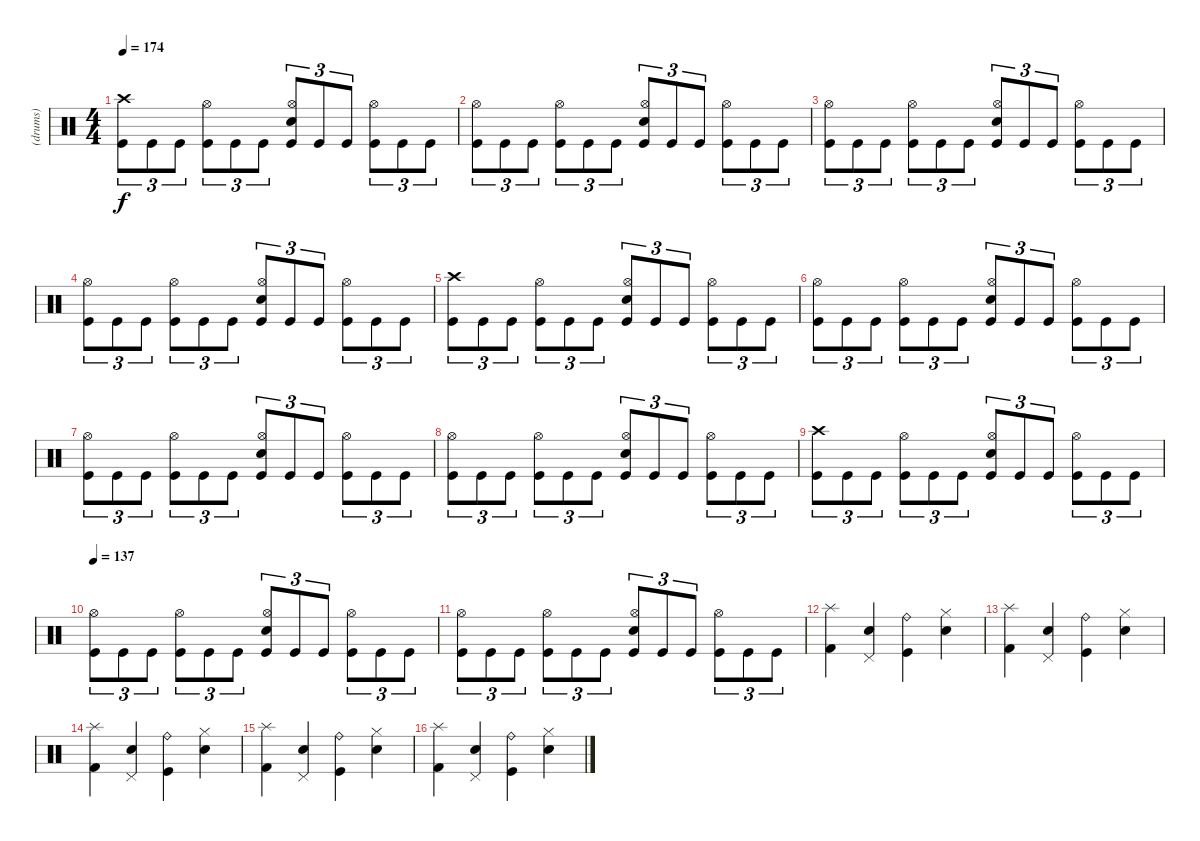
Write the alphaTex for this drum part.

\track ("(drums)" "(drums)") {instrument percussion}
\staff {score}
\articulation defaults
\ts (4 4)
\tempo 174
\clef neutral
\ks c
("Kick (hit)" "Crash high (hit)").8{tu (3 2) dy f} "Kick (hit)".8{tu (3 2)} "Kick (hit)".8{tu (3 2)} ("Kick (hit)" "Hi-Hat (open)").8{tu (3 2)} "Kick (hit)".8{tu (3 2)} "Kick (hit)".8{tu (3 2)} ("Kick (hit)" "Snare (hit) 2" "Hi-Hat (open)").8{tu (3 2)} "Kick (hit)".8{tu (3 2)} "Kick (hit)".8{tu (3 2)} ("Kick (hit)" "Hi-Hat (open)").8{tu (3 2)} "Kick (hit)".8{tu (3 2)} "Kick (hit)".8{tu (3 2)} |
("Kick (hit)" "Hi-Hat (open)").8{tu (3 2)} "Kick (hit)".8{tu (3 2)} "Kick (hit)".8{tu (3 2)} ("Kick (hit)" "Hi-Hat (open)").8{tu (3 2)} "Kick (hit)".8{tu (3 2)} "Kick (hit)".8{tu (3 2)} ("Kick (hit)" "Snare (hit) 2" "Hi-Hat (open)").8{tu (3 2)} "Kick (hit)".8{tu (3 2)} "Kick (hit)".8{tu (3 2)} ("Kick (hit)" "Hi-Hat (open)").8{tu (3 2)} "Kick (hit)".8{tu (3 2)} "Kick (hit)".8{tu (3 2)} |
("Kick (hit)" "Hi-Hat (open)").8{tu (3 2)} "Kick (hit)".8{tu (3 2)} "Kick (hit)".8{tu (3 2)} ("Kick (hit)" "Hi-Hat (open)").8{tu (3 2)} "Kick (hit)".8{tu (3 2)} "Kick (hit)".8{tu (3 2)} ("Kick (hit)" "Snare (hit) 2" "Hi-Hat (open)").8{tu (3 2)} "Kick (hit)".8{tu (3 2)} "Kick (hit)".8{tu (3 2)} ("Kick (hit)" "Hi-Hat (open)").8{tu (3 2)} "Kick (hit)".8{tu (3 2)} "Kick (hit)".8{tu (3 2)} |
("Kick (hit)" "Hi-Hat (open)").8{tu (3 2)} "Kick (hit)".8{tu (3 2)} "Kick (hit)".8{tu (3 2)} ("Kick (hit)" "Hi-Hat (open)").8{tu (3 2)} "Kick (hit)".8{tu (3 2)} "Kick (hit)".8{tu (3 2)} ("Kick (hit)" "Snare (hit) 2" "Hi-Hat (open)").8{tu (3 2)} "Kick (hit)".8{tu (3 2)} "Kick (hit)".8{tu (3 2)} ("Kick (hit)" "Hi-Hat (open)").8{tu (3 2)} "Kick (hit)".8{tu (3 2)} "Kick (hit)".8{tu (3 2)} |
("Kick (hit)" "Crash high (hit)").8{tu (3 2)} "Kick (hit)".8{tu (3 2)} "Kick (hit)".8{tu (3 2)} ("Kick (hit)" "Hi-Hat (open)").8{tu (3 2)} "Kick (hit)".8{tu (3 2)} "Kick (hit)".8{tu (3 2)} ("Kick (hit)" "Snare (hit) 2" "Hi-Hat (open)").8{tu (3 2)} "Kick (hit)".8{tu (3 2)} "Kick (hit)".8{tu (3 2)} ("Kick (hit)" "Hi-Hat (open)").8{tu (3 2)} "Kick (hit)".8{tu (3 2)} "Kick (hit)".8{tu (3 2)} |
("Kick (hit)" "Hi-Hat (open)").8{tu (3 2)} "Kick (hit)".8{tu (3 2)} "Kick (hit)".8{tu (3 2)} ("Kick (hit)" "Hi-Hat (open)").8{tu (3 2)} "Kick (hit)".8{tu (3 2)} "Kick (hit)".8{tu (3 2)} ("Kick (hit)" "Snare (hit) 2" "Hi-Hat (open)").8{tu (3 2)} "Kick (hit)".8{tu (3 2)} "Kick (hit)".8{tu (3 2)} ("Kick (hit)" "Hi-Hat (open)").8{tu (3 2)} "Kick (hit)".8{tu (3 2)} "Kick (hit)".8{tu (3 2)} |
("Kick (hit)" "Hi-Hat (open)").8{tu (3 2)} "Kick (hit)".8{tu (3 2)} "Kick (hit)".8{tu (3 2)} ("Kick (hit)" "Hi-Hat (open)").8{tu (3 2)} "Kick (hit)".8{tu (3 2)} "Kick (hit)".8{tu (3 2)} ("Kick (hit)" "Snare (hit) 2" "Hi-Hat (open)").8{tu (3 2)} "Kick (hit)".8{tu (3 2)} "Kick (hit)".8{tu (3 2)} ("Kick (hit)" "Hi-Hat (open)").8{tu (3 2)} "Kick (hit)".8{tu (3 2)} "Kick (hit)".8{tu (3 2)} |
("Kick (hit)" "Hi-Hat (open)").8{tu (3 2)} "Kick (hit)".8{tu (3 2)} "Kick (hit)".8{tu (3 2)} ("Kick (hit)" "Hi-Hat (open)").8{tu (3 2)} "Kick (hit)".8{tu (3 2)} "Kick (hit)".8{tu (3 2)} ("Kick (hit)" "Snare (hit) 2" "Hi-Hat (open)").8{tu (3 2)} "Kick (hit)".8{tu (3 2)} "Kick (hit)".8{tu (3 2)} ("Kick (hit)" "Hi-Hat (open)").8{tu (3 2)} "Kick (hit)".8{tu (3 2)} "Kick (hit)".8{tu (3 2)} |
("Kick (hit)" "Crash high (hit)").8{tu (3 2)} "Kick (hit)".8{tu (3 2)} "Kick (hit)".8{tu (3 2)} ("Kick (hit)" "Hi-Hat (open)").8{tu (3 2)} "Kick (hit)".8{tu (3 2)} "Kick (hit)".8{tu (3 2)} ("Kick (hit)" "Snare (hit) 2" "Hi-Hat (open)").8{tu (3 2)} "Kick (hit)".8{tu (3 2)} "Kick (hit)".8{tu (3 2)} ("Kick (hit)" "Hi-Hat (open)").8{tu (3 2)} "Kick (hit)".8{tu (3 2)} "Kick (hit)".8{tu (3 2)} |
\tempo 137
("Kick (hit)" "Hi-Hat (open)").8{tu (3 2)} "Kick (hit)".8{tu (3 2)} "Kick (hit)".8{tu (3 2)} ("Kick (hit)" "Hi-Hat (open)").8{tu (3 2)} "Kick (hit)".8{tu (3 2)} "Kick (hit)".8{tu (3 2)} ("Kick (hit)" "Snare (hit) 2" "Hi-Hat (open)").8{tu (3 2)} "Kick (hit)".8{tu (3 2)} "Kick (hit)".8{tu (3 2)} ("Kick (hit)" "Hi-Hat (open)").8{tu (3 2)} "Kick (hit)".8{tu (3 2)} "Kick (hit)".8{tu (3 2)} |
("Kick (hit)" "Hi-Hat (open)").8{tu (3 2)} "Kick (hit)".8{tu (3 2)} "Kick (hit)".8{tu (3 2)} ("Kick (hit)" "Hi-Hat (open)").8{tu (3 2)} "Kick (hit)".8{tu (3 2)} "Kick (hit)".8{tu (3 2)} ("Kick (hit)" "Snare (hit) 2" "Hi-Hat (open)").8{tu (3 2)} "Kick (hit)".8{tu (3 2)} "Kick (hit)".8{tu (3 2)} ("Kick (hit)" "Hi-Hat (open)").8{tu (3 2)} "Kick (hit)".8{tu (3 2)} "Kick (hit)".8{tu (3 2)} |
("Splash (hit)" "Kick (hit) 2").4 ("Pedal Hi-Hat (hit)" "Snare (hit) 2").4 ("Ride (bell)" "Kick (hit)").4 ("Hi-Hat (closed)" "Snare (hit) 2").4 |
("Splash (hit)" "Kick (hit) 2").4 ("Pedal Hi-Hat (hit)" "Snare (hit) 2").4 ("Ride (bell)" "Kick (hit)").4 ("Hi-Hat (closed)" "Snare (hit) 2").4 |
("Splash (hit)" "Kick (hit) 2").4 ("Pedal Hi-Hat (hit)" "Snare (hit) 2").4 ("Ride (bell)" "Kick (hit)").4 ("Hi-Hat (closed)" "Snare (hit) 2").4 |
("Splash (hit)" "Kick (hit) 2").4 ("Pedal Hi-Hat (hit)" "Snare (hit) 2").4 ("Ride (bell)" "Kick (hit)").4 ("Hi-Hat (closed)" "Snare (hit) 2").4 |
("Splash (hit)" "Kick (hit) 2").4 ("Pedal Hi-Hat (hit)" "Snare (hit) 2").4 ("Ride (bell)" "Kick (hit)").4 ("Hi-Hat (closed)" "Snare (hit) 2").4
